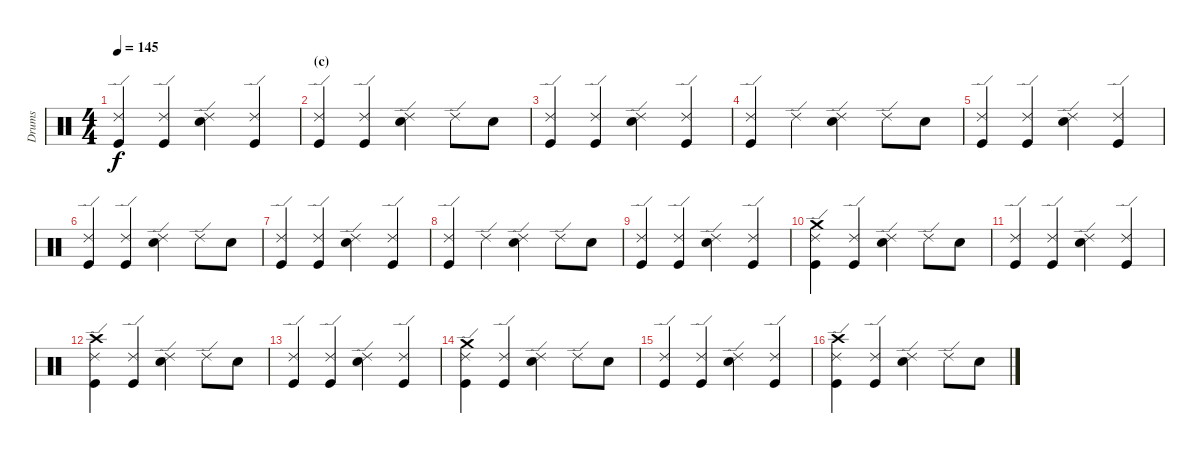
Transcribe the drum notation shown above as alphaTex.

\track ("Drums" "Drums") {instrument percussion}
\staff {score}
\articulation defaults
\ts (4 4)
\tempo 145
\clef neutral
\ks c
("Ride (edge) 2" "Kick (hit)").4{dy f} ("Ride (edge) 2" "Kick (hit)").4 ("Ride (edge) 2" "Electric Snare (hit)").4 ("Ride (edge) 2" "Kick (hit)").4 |
\section ("" "(c)")
("Ride (edge) 2" "Kick (hit)").4 ("Ride (edge) 2" "Kick (hit)").4 ("Ride (edge) 2" "Electric Snare (hit)").4 "Ride (edge) 2".8 "Electric Snare (hit)".8 |
("Ride (edge) 2" "Kick (hit)").4 ("Ride (edge) 2" "Kick (hit)").4 ("Ride (edge) 2" "Electric Snare (hit)").4 ("Ride (edge) 2" "Kick (hit)").4 |
("Ride (edge) 2" "Kick (hit)").4 "Ride (edge) 2".4 ("Ride (edge) 2" "Electric Snare (hit)").4 "Ride (edge) 2".8 "Electric Snare (hit)".8 |
("Ride (edge) 2" "Kick (hit)").4 ("Ride (edge) 2" "Kick (hit)").4 ("Ride (edge) 2" "Electric Snare (hit)").4 ("Ride (edge) 2" "Kick (hit)").4 |
("Ride (edge) 2" "Kick (hit)").4 ("Ride (edge) 2" "Kick (hit)").4 ("Ride (edge) 2" "Electric Snare (hit)").4 "Ride (edge) 2".8 "Electric Snare (hit)".8 |
("Ride (edge) 2" "Kick (hit)").4 ("Ride (edge) 2" "Kick (hit)").4 ("Ride (edge) 2" "Electric Snare (hit)").4 ("Ride (edge) 2" "Kick (hit)").4 |
("Ride (edge) 2" "Kick (hit)").4 "Ride (edge) 2".4 ("Ride (edge) 2" "Electric Snare (hit)").4 "Ride (edge) 2".8 "Electric Snare (hit)".8 |
("Ride (edge) 2" "Kick (hit)").4 ("Ride (edge) 2" "Kick (hit)").4 ("Ride (edge) 2" "Electric Snare (hit)").4 ("Ride (edge) 2" "Kick (hit)").4 |
("Ride (edge) 2" "Crash medium (hit)" "Kick (hit)").4 ("Ride (edge) 2" "Kick (hit)").4 ("Ride (edge) 2" "Electric Snare (hit)").4 "Ride (edge) 2".8 "Electric Snare (hit)".8 |
("Ride (edge) 2" "Kick (hit)").4 ("Ride (edge) 2" "Kick (hit)").4 ("Ride (edge) 2" "Electric Snare (hit)").4 ("Ride (edge) 2" "Kick (hit)").4 |
("Ride (edge) 2" "Crash high (hit)" "Kick (hit)").4 ("Ride (edge) 2" "Kick (hit)").4 ("Ride (edge) 2" "Electric Snare (hit)").4 "Ride (edge) 2".8 "Electric Snare (hit)".8 |
("Ride (edge) 2" "Kick (hit)").4 ("Ride (edge) 2" "Kick (hit)").4 ("Ride (edge) 2" "Electric Snare (hit)").4 ("Ride (edge) 2" "Kick (hit)").4 |
("Ride (edge) 2" "Crash medium (hit)" "Kick (hit)").4 ("Ride (edge) 2" "Kick (hit)").4 ("Ride (edge) 2" "Electric Snare (hit)").4 "Ride (edge) 2".8 "Electric Snare (hit)".8 |
("Ride (edge) 2" "Kick (hit)").4 ("Ride (edge) 2" "Kick (hit)").4 ("Ride (edge) 2" "Electric Snare (hit)").4 ("Ride (edge) 2" "Kick (hit)").4 |
("Ride (edge) 2" "Crash high (hit)" "Kick (hit)").4 ("Ride (edge) 2" "Kick (hit)").4 ("Ride (edge) 2" "Electric Snare (hit)").4 "Ride (edge) 2".8 "Electric Snare (hit)".8
